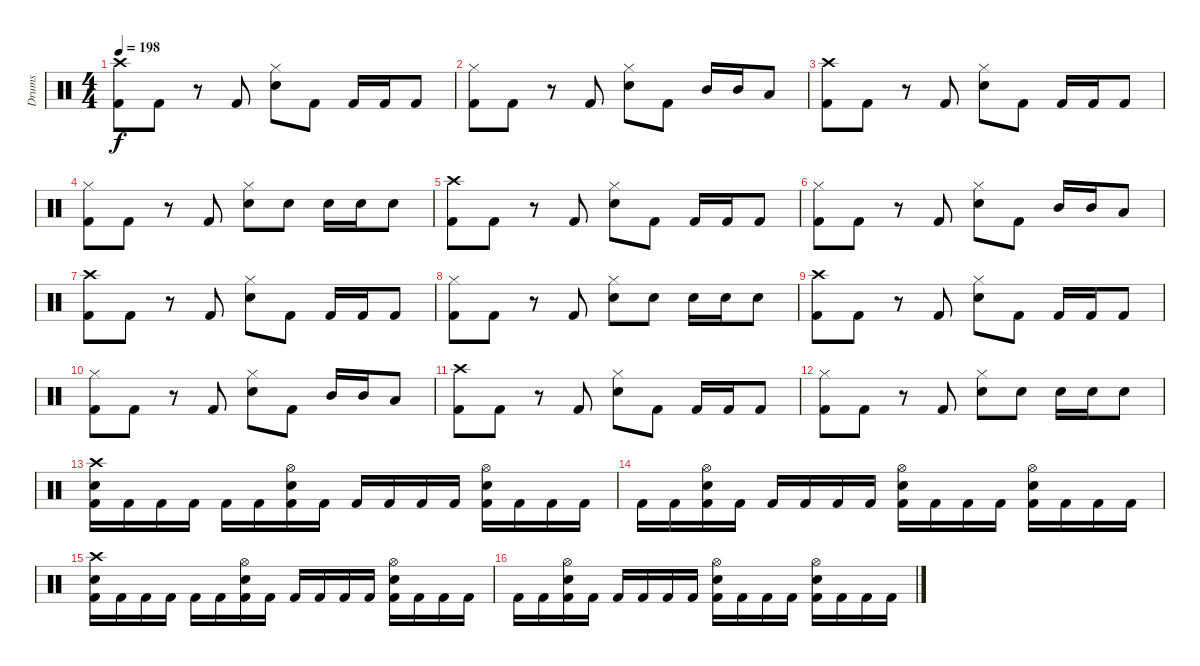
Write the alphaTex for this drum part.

\track ("Drums" "Drums") {instrument percussion}
\staff {score}
\articulation defaults
\ts (4 4)
\tempo 198
\clef neutral
\ks c
("Crash high (hit)" "Kick (hit) 2").8{dy f} "Kick (hit) 2".8 r.8 "Kick (hit) 2".8 ("Hi-Hat (closed)" "Snare (hit) 2").8 "Kick (hit) 2".8 "Kick (hit) 2".16 "Kick (hit) 2".16 "Kick (hit) 2".8 |
("Hi-Hat (closed)" "Kick (hit) 2").8 "Kick (hit) 2".8 r.8 "Kick (hit) 2".8 ("Hi-Hat (closed)" "Snare (hit) 2").8 "Kick (hit) 2".8 "Mid Tom (hit)".16 "Mid Tom (hit)".16 "Low Tom (hit)".8 |
("Crash high (hit)" "Kick (hit) 2").8 "Kick (hit) 2".8 r.8 "Kick (hit) 2".8 ("Hi-Hat (closed)" "Snare (hit) 2").8 "Kick (hit) 2".8 "Kick (hit) 2".16 "Kick (hit) 2".16 "Kick (hit) 2".8 |
("Hi-Hat (closed)" "Kick (hit) 2").8 "Kick (hit) 2".8 r.8 "Kick (hit) 2".8 ("Hi-Hat (closed)" "Snare (hit) 2").8 "Snare (hit) 2".8 "Snare (hit) 2".16 "Snare (hit) 2".16 "Snare (hit) 2".8 |
("Crash high (hit)" "Kick (hit) 2").8 "Kick (hit) 2".8 r.8 "Kick (hit) 2".8 ("Hi-Hat (closed)" "Snare (hit) 2").8 "Kick (hit) 2".8 "Kick (hit) 2".16 "Kick (hit) 2".16 "Kick (hit) 2".8 |
("Hi-Hat (closed)" "Kick (hit) 2").8 "Kick (hit) 2".8 r.8 "Kick (hit) 2".8 ("Hi-Hat (closed)" "Snare (hit) 2").8 "Kick (hit) 2".8 "Mid Tom (hit)".16 "Mid Tom (hit)".16 "Low Tom (hit)".8 |
("Crash high (hit)" "Kick (hit) 2").8 "Kick (hit) 2".8 r.8 "Kick (hit) 2".8 ("Hi-Hat (closed)" "Snare (hit) 2").8 "Kick (hit) 2".8 "Kick (hit) 2".16 "Kick (hit) 2".16 "Kick (hit) 2".8 |
("Hi-Hat (closed)" "Kick (hit) 2").8 "Kick (hit) 2".8 r.8 "Kick (hit) 2".8 ("Hi-Hat (closed)" "Snare (hit) 2").8 "Snare (hit) 2".8 "Snare (hit) 2".16 "Snare (hit) 2".16 "Snare (hit) 2".8 |
("Crash high (hit)" "Kick (hit) 2").8 "Kick (hit) 2".8 r.8 "Kick (hit) 2".8 ("Hi-Hat (closed)" "Snare (hit) 2").8 "Kick (hit) 2".8 "Kick (hit) 2".16 "Kick (hit) 2".16 "Kick (hit) 2".8 |
("Hi-Hat (closed)" "Kick (hit) 2").8 "Kick (hit) 2".8 r.8 "Kick (hit) 2".8 ("Hi-Hat (closed)" "Snare (hit) 2").8 "Kick (hit) 2".8 "Mid Tom (hit)".16 "Mid Tom (hit)".16 "Low Tom (hit)".8 |
("Crash high (hit)" "Kick (hit) 2").8 "Kick (hit) 2".8 r.8 "Kick (hit) 2".8 ("Hi-Hat (closed)" "Snare (hit) 2").8 "Kick (hit) 2".8 "Kick (hit) 2".16 "Kick (hit) 2".16 "Kick (hit) 2".8 |
("Hi-Hat (closed)" "Kick (hit) 2").8 "Kick (hit) 2".8 r.8 "Kick (hit) 2".8 ("Hi-Hat (closed)" "Snare (hit) 2").8 "Snare (hit) 2".8 "Snare (hit) 2".16 "Snare (hit) 2".16 "Snare (hit) 2".8 |
("Crash high (hit)" "Snare (hit) 2" "Kick (hit) 2").16 "Kick (hit) 2".16 "Kick (hit) 2".16 "Kick (hit) 2".16 "Kick (hit) 2".16 "Kick (hit) 2".16 ("Hi-Hat (open)" "Snare (hit) 2" "Kick (hit) 2").16 "Kick (hit) 2".16 "Kick (hit) 2".16 "Kick (hit) 2".16 "Kick (hit) 2".16 "Kick (hit) 2".16 ("Hi-Hat (open)" "Snare (hit) 2" "Kick (hit) 2").16 "Kick (hit) 2".16 "Kick (hit) 2".16 "Kick (hit) 2".16 |
"Kick (hit) 2".16 "Kick (hit) 2".16 ("Hi-Hat (open)" "Snare (hit) 2" "Kick (hit) 2").16 "Kick (hit) 2".16 "Kick (hit) 2".16 "Kick (hit) 2".16 "Kick (hit) 2".16 "Kick (hit) 2".16 ("Hi-Hat (open)" "Snare (hit) 2" "Kick (hit) 2").16 "Kick (hit) 2".16 "Kick (hit) 2".16 "Kick (hit) 2".16 ("Hi-Hat (open)" "Snare (hit) 2" "Kick (hit) 2").16 "Kick (hit) 2".16 "Kick (hit) 2".16 "Kick (hit) 2".16 |
("Crash high (hit)" "Snare (hit) 2" "Kick (hit) 2").16 "Kick (hit) 2".16 "Kick (hit) 2".16 "Kick (hit) 2".16 "Kick (hit) 2".16 "Kick (hit) 2".16 ("Hi-Hat (open)" "Snare (hit) 2" "Kick (hit) 2").16 "Kick (hit) 2".16 "Kick (hit) 2".16 "Kick (hit) 2".16 "Kick (hit) 2".16 "Kick (hit) 2".16 ("Hi-Hat (open)" "Snare (hit) 2" "Kick (hit) 2").16 "Kick (hit) 2".16 "Kick (hit) 2".16 "Kick (hit) 2".16 |
"Kick (hit) 2".16 "Kick (hit) 2".16 ("Hi-Hat (open)" "Snare (hit) 2" "Kick (hit) 2").16 "Kick (hit) 2".16 "Kick (hit) 2".16 "Kick (hit) 2".16 "Kick (hit) 2".16 "Kick (hit) 2".16 ("Hi-Hat (open)" "Snare (hit) 2" "Kick (hit) 2").16 "Kick (hit) 2".16 "Kick (hit) 2".16 "Kick (hit) 2".16 ("Hi-Hat (open)" "Snare (hit) 2" "Kick (hit) 2").16 "Kick (hit) 2".16 "Kick (hit) 2".16 "Kick (hit) 2".16
